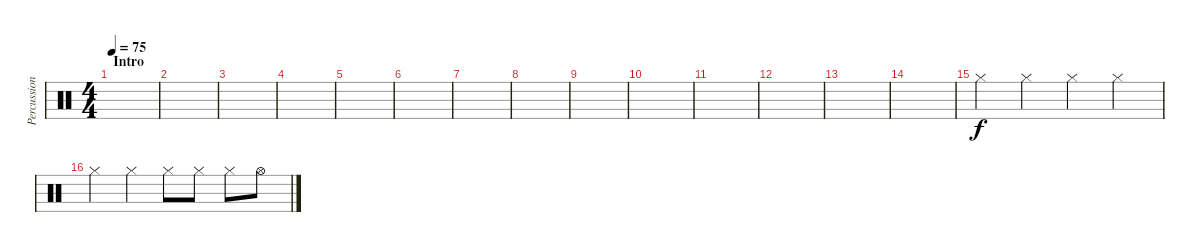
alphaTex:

\track ("Percussions" "Percussion") {instrument percussion}
\staff {score}
\articulation defaults
\ts (4 4)
\section ("" "Intro ")
\tempo 75
\clef neutral
\ks c
|
|
|
|
|
|
|
|
|
|
|
|
|
|
"Hi-Hat (closed)".4 "Hi-Hat (closed)".4 "Hi-Hat (closed)".4 "Hi-Hat (closed)".4 |
"Hi-Hat (closed)".4 "Hi-Hat (closed)".4 "Hi-Hat (closed)".8 "Hi-Hat (closed)".8 "Hi-Hat (closed)".8{dy f} "Hi-Hat (open)".8
